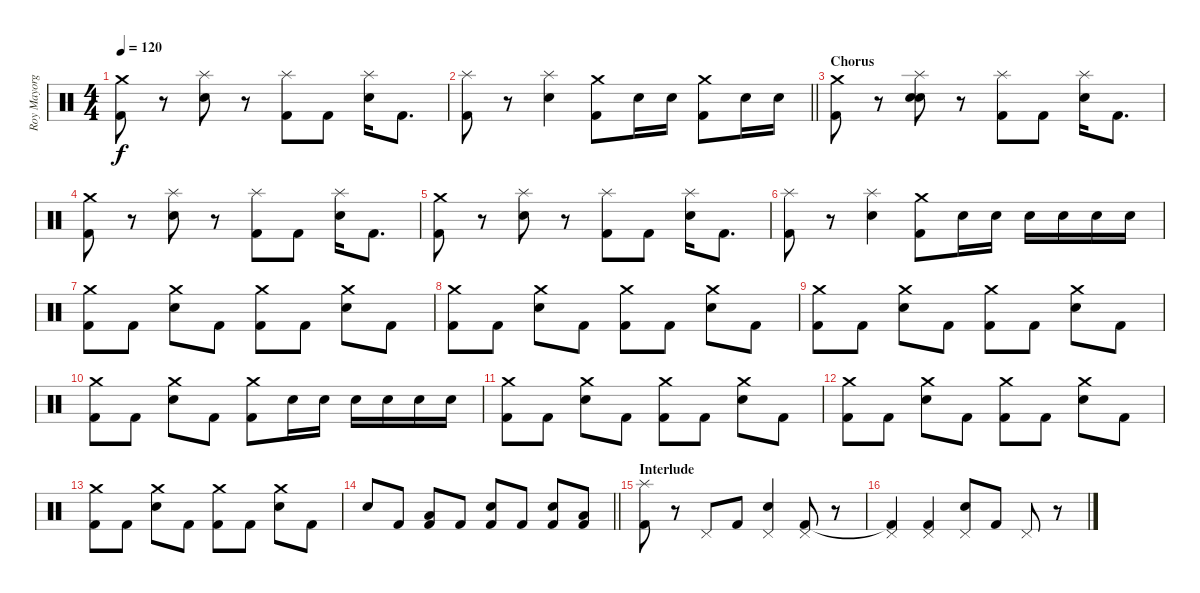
\track ("Roy Mayorga" "Roy Mayorg") {instrument percussion}
\staff {score}
\articulation defaults
\ts (4 4)
\tempo 120
\clef neutral
\ks c
("Crash medium (hit)" "Kick (hit) 2").8{dy f} r.8 ("Splash (hit)" "Electric Snare (hit)").8 r.8 ("Splash (hit)" "Kick (hit) 2").8 "Kick (hit) 2".8 ("Splash (hit)" "Electric Snare (hit)").16 "Kick (hit) 2".8{d} |
\barLineRight lightlight
("Splash (hit)" "Kick (hit) 2").8 r.8 ("Splash (hit)" "Electric Snare (hit)").4 ("Crash medium (hit)" "Kick (hit) 2").8 "Electric Snare (hit)".16 "Electric Snare (hit)".16 ("Crash medium (hit)" "Kick (hit) 2").8 "Electric Snare (hit)".16 "Electric Snare (hit)".16 |
\section ("" "Chorus")
("Crash medium (hit)" "Kick (hit) 2").8 r.8 ("Splash (hit)" "Electric Snare (hit)" "Electric Snare (hit)").8 r.8 ("Splash (hit)" "Kick (hit) 2").8 "Kick (hit) 2".8 ("Splash (hit)" "Electric Snare (hit)").16 "Kick (hit) 2".8{d} |
("Crash medium (hit)" "Kick (hit) 2").8 r.8 ("Splash (hit)" "Electric Snare (hit)").8 r.8 ("Splash (hit)" "Kick (hit) 2").8 "Kick (hit) 2".8 ("Splash (hit)" "Electric Snare (hit)").16 "Kick (hit) 2".8{d} |
("Crash medium (hit)" "Kick (hit) 2").8 r.8 ("Splash (hit)" "Electric Snare (hit)").8 r.8 ("Splash (hit)" "Kick (hit) 2").8 "Kick (hit) 2".8 ("Splash (hit)" "Electric Snare (hit)").16 "Kick (hit) 2".8{d} |
("Splash (hit)" "Kick (hit) 2").8 r.8 ("Splash (hit)" "Electric Snare (hit)").4 ("Crash medium (hit)" "Kick (hit) 2").8 "Electric Snare (hit)".16 "Electric Snare (hit)".16 "Electric Snare (hit)".16 "Electric Snare (hit)".16 "Electric Snare (hit)".16 "Electric Snare (hit)".16 |
("Crash medium (hit)" "Kick (hit) 2").8 "Kick (hit) 2".8 ("Crash medium (hit)" "Electric Snare (hit)").8 "Kick (hit) 2".8 ("Crash medium (hit)" "Kick (hit) 2").8 "Kick (hit) 2".8 ("Crash medium (hit)" "Electric Snare (hit)").8 "Kick (hit) 2".8 |
("Crash medium (hit)" "Kick (hit) 2").8 "Kick (hit) 2".8 ("Crash medium (hit)" "Electric Snare (hit)").8 "Kick (hit) 2".8 ("Crash medium (hit)" "Kick (hit) 2").8 "Kick (hit) 2".8 ("Crash medium (hit)" "Electric Snare (hit)").8 "Kick (hit) 2".8 |
("Crash medium (hit)" "Kick (hit) 2").8 "Kick (hit) 2".8 ("Crash medium (hit)" "Electric Snare (hit)").8 "Kick (hit) 2".8 ("Crash medium (hit)" "Kick (hit) 2").8 "Kick (hit) 2".8 ("Crash medium (hit)" "Electric Snare (hit)").8 "Kick (hit) 2".8 |
("Crash medium (hit)" "Kick (hit) 2").8 "Kick (hit) 2".8 ("Crash medium (hit)" "Electric Snare (hit)").8 "Kick (hit) 2".8 ("Crash medium (hit)" "Kick (hit) 2").8 "Electric Snare (hit)".16 "Electric Snare (hit)".16 "Electric Snare (hit)".16 "Electric Snare (hit)".16 "Electric Snare (hit)".16 "Electric Snare (hit)".16 |
("Crash medium (hit)" "Kick (hit) 2").8 "Kick (hit) 2".8 ("Crash medium (hit)" "Electric Snare (hit)").8 "Kick (hit) 2".8 ("Crash medium (hit)" "Kick (hit) 2").8 "Kick (hit) 2".8 ("Crash medium (hit)" "Electric Snare (hit)").8 "Kick (hit) 2".8 |
("Crash medium (hit)" "Kick (hit) 2").8 "Kick (hit) 2".8 ("Crash medium (hit)" "Electric Snare (hit)").8 "Kick (hit) 2".8 ("Crash medium (hit)" "Kick (hit) 2").8 "Kick (hit) 2".8 ("Crash medium (hit)" "Electric Snare (hit)").8 "Kick (hit) 2".8 |
("Crash medium (hit)" "Kick (hit) 2").8 "Kick (hit) 2".8 ("Crash medium (hit)" "Electric Snare (hit)").8 "Kick (hit) 2".8 ("Crash medium (hit)" "Kick (hit) 2").8 "Kick (hit) 2".8 ("Crash medium (hit)" "Electric Snare (hit)").8 "Kick (hit) 2".8 |
\barLineRight lightlight "Electric Snare (hit)".8 "Kick (hit) 2".8
("Low Tom (hit)" "Kick (hit) 2").8 "Kick (hit) 2".8 ("Electric Snare (hit)" "Kick (hit) 2").8 "Kick (hit) 2".8 ("Electric Snare (hit)" "Kick (hit) 2").8 ("Low Tom (hit)" "Kick (hit) 2").8 |
\section ("" "Interlude")
("Splash (hit)" "Kick (hit) 2").8 r.8 "Pedal Hi-Hat (hit)".8 "Kick (hit) 2".8 ("Pedal Hi-Hat (hit)" "Electric Snare (hit)").4 ("Pedal Hi-Hat (hit)" "Kick (hit) 2").8 r.8 |
("Pedal Hi-Hat (hit)" "Kick (hit) 2"{t}).4 ("Pedal Hi-Hat (hit)" "Kick (hit) 2").4 ("Pedal Hi-Hat (hit)" "Electric Snare (hit)").8 "Kick (hit) 2".8 "Pedal Hi-Hat (hit)".8 r.8
